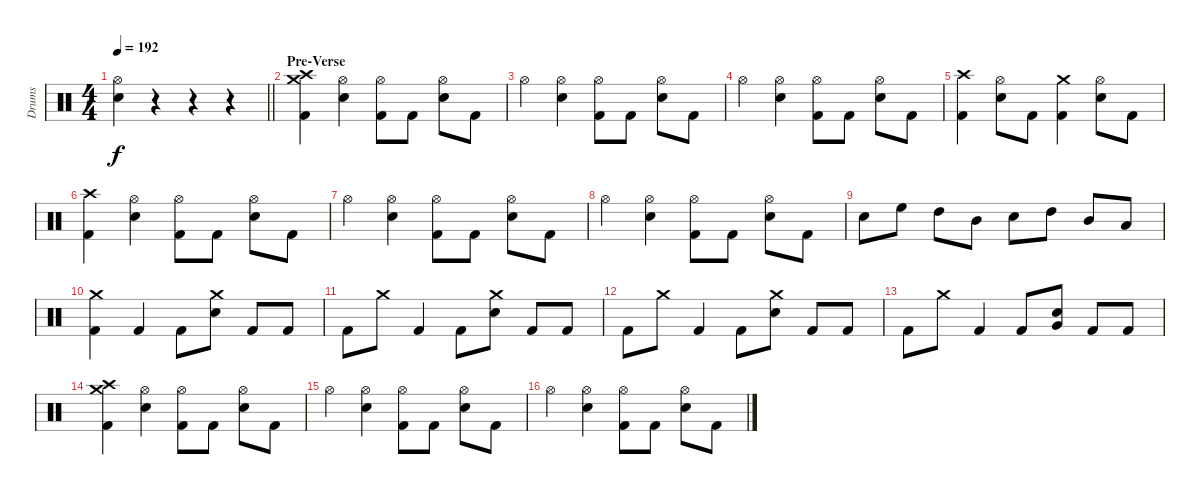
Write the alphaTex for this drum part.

\track ("Drums" "Drums") {instrument percussion}
\staff {score}
\articulation defaults
\ts (4 4)
\tempo 192
\clef neutral
\barLineRight lightlight
\ks c
("Hi-Hat (open)" "Electric Snare (hit)").4{dy f} r.4 r.4 r.4 |
\section ("" "Pre-Verse")
("Crash medium (hit)" "Crash high (hit)" "Kick (hit) 2").4 ("Hi-Hat (open)" "Electric Snare (hit)").4 ("Hi-Hat (open)" "Kick (hit) 2").8 "Kick (hit) 2".8 ("Hi-Hat (open)" "Electric Snare (hit)").8 "Kick (hit) 2".8 |
"Hi-Hat (open)".4 ("Hi-Hat (open)" "Electric Snare (hit)").4 ("Hi-Hat (open)" "Kick (hit) 2").8 "Kick (hit) 2".8 ("Hi-Hat (open)" "Electric Snare (hit)").8 "Kick (hit) 2".8 |
"Hi-Hat (open)".4 ("Hi-Hat (open)" "Electric Snare (hit)").4 ("Hi-Hat (open)" "Kick (hit) 2").8 "Kick (hit) 2".8 ("Hi-Hat (open)" "Electric Snare (hit)").8 "Kick (hit) 2".8 |
("Crash high (hit)" "Kick (hit) 2").4 ("Hi-Hat (open)" "Electric Snare (hit)").8 "Kick (hit) 2".8 ("Crash medium (hit)" "Kick (hit) 2").4 ("Hi-Hat (open)" "Electric Snare (hit)").8 "Kick (hit) 2".8 |
("Crash high (hit)" "Kick (hit) 2").4 ("Hi-Hat (open)" "Electric Snare (hit)").4 ("Hi-Hat (open)" "Kick (hit) 2").8 "Kick (hit) 2".8 ("Hi-Hat (open)" "Electric Snare (hit)").8 "Kick (hit) 2".8 |
"Hi-Hat (open)".4 ("Hi-Hat (open)" "Electric Snare (hit)").4 ("Hi-Hat (open)" "Kick (hit) 2").8 "Kick (hit) 2".8 ("Hi-Hat (open)" "Electric Snare (hit)").8 "Kick (hit) 2".8 |
"Hi-Hat (open)".4 ("Hi-Hat (open)" "Electric Snare (hit)").4 ("Hi-Hat (open)" "Kick (hit) 2").8 "Kick (hit) 2".8 ("Hi-Hat (open)" "Electric Snare (hit)").8 "Kick (hit) 2".8 |
"Electric Snare (hit)".8 "High Floor Tom (hit)".8 "High Tom (hit)".8 "Mid Tom (hit)".8 "Electric Snare (hit)".8 "High Tom (hit)".8 "Mid Tom (hit)".8 "Low Tom (hit)".8 |
("Crash medium (hit)" "Kick (hit) 2").4 "Kick (hit) 2".4 "Kick (hit) 2".8 ("Crash medium (hit)" "Electric Snare (hit)").8 "Kick (hit) 2".8 "Kick (hit) 2".8 |
"Kick (hit) 2".8 "Crash medium (hit)".8 "Kick (hit) 2".4 "Kick (hit) 2".8 ("Crash medium (hit)" "Electric Snare (hit)").8 "Kick (hit) 2".8 "Kick (hit) 2".8 |
"Kick (hit) 2".8 "Crash medium (hit)".8 "Kick (hit) 2".4 "Kick (hit) 2".8 ("Crash medium (hit)" "Electric Snare (hit)").8 "Kick (hit) 2".8 "Kick (hit) 2".8 |
"Kick (hit) 2".8 "Crash medium (hit)".8 "Kick (hit) 2".4 "Kick (hit) 2".8 ("Very Low Tom (hit)" "Electric Snare (hit)").8 "Kick (hit) 2".8 "Kick (hit) 2".8 |
("Crash medium (hit)" "Crash high (hit)" "Kick (hit) 2").4 ("Hi-Hat (open)" "Electric Snare (hit)").4 ("Hi-Hat (open)" "Kick (hit) 2").8 "Kick (hit) 2".8 ("Hi-Hat (open)" "Electric Snare (hit)").8 "Kick (hit) 2".8 |
"Hi-Hat (open)".4 ("Hi-Hat (open)" "Electric Snare (hit)").4 ("Hi-Hat (open)" "Kick (hit) 2").8 "Kick (hit) 2".8 ("Hi-Hat (open)" "Electric Snare (hit)").8 "Kick (hit) 2".8 |
"Hi-Hat (open)".4 ("Hi-Hat (open)" "Electric Snare (hit)").4 ("Hi-Hat (open)" "Kick (hit) 2").8 "Kick (hit) 2".8 ("Hi-Hat (open)" "Electric Snare (hit)").8 "Kick (hit) 2".8
